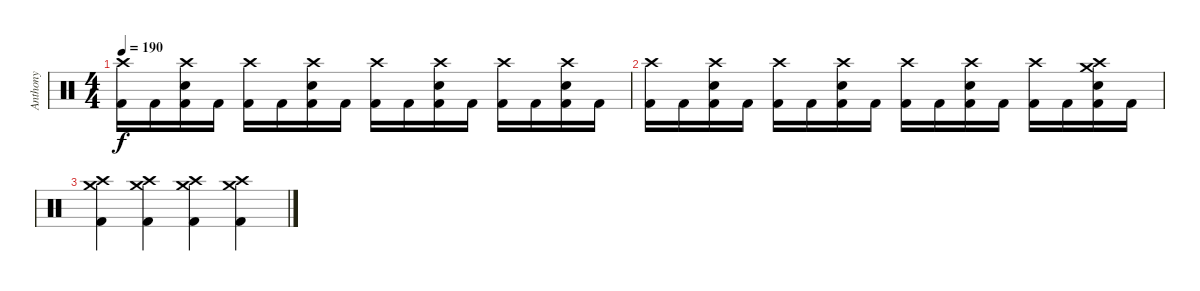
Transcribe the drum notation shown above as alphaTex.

\track ("Anthony" "Anthony") {instrument percussion}
\staff {score}
\articulation defaults
\ts (4 4)
\tempo 190
\clef neutral
\ks c
("Crash high (hit)" "Kick (hit) 2").16{dy f} "Kick (hit) 2".16 ("Crash high (hit)" "Snare (hit) 2" "Kick (hit) 2").16 "Kick (hit) 2".16 ("Crash high (hit)" "Kick (hit) 2").16 "Kick (hit) 2".16 ("Crash high (hit)" "Snare (hit) 2" "Kick (hit) 2").16 "Kick (hit) 2".16 ("Crash high (hit)" "Kick (hit) 2").16 "Kick (hit) 2".16 ("Crash high (hit)" "Snare (hit) 2" "Kick (hit) 2").16 "Kick (hit) 2".16 ("Crash high (hit)" "Kick (hit) 2").16 "Kick (hit) 2".16 ("Crash high (hit)" "Snare (hit) 2" "Kick (hit) 2").16 "Kick (hit) 2".16 |
("Crash high (hit)" "Kick (hit) 2").16 "Kick (hit) 2".16 ("Crash high (hit)" "Snare (hit) 2" "Kick (hit) 2").16 "Kick (hit) 2".16 ("Crash high (hit)" "Kick (hit) 2").16 "Kick (hit) 2".16 ("Crash high (hit)" "Snare (hit) 2" "Kick (hit) 2").16 "Kick (hit) 2".16 ("Crash high (hit)" "Kick (hit) 2").16 "Kick (hit) 2".16 ("Crash high (hit)" "Snare (hit) 2" "Kick (hit) 2").16 "Kick (hit) 2".16 ("Crash high (hit)" "Kick (hit) 2").16 "Kick (hit) 2".16 ("Crash high (hit)" "Crash medium (hit)" "Snare (hit) 2" "Kick (hit) 2").16 "Kick (hit) 2".16 |
("Crash medium (hit)" "Crash high (hit)" "Kick (hit) 2").4 ("Crash medium (hit)" "Crash high (hit)" "Kick (hit) 2").4 ("Crash medium (hit)" "Crash high (hit)" "Kick (hit) 2").4 ("Crash medium (hit)" "Crash high (hit)" "Kick (hit) 2").4
